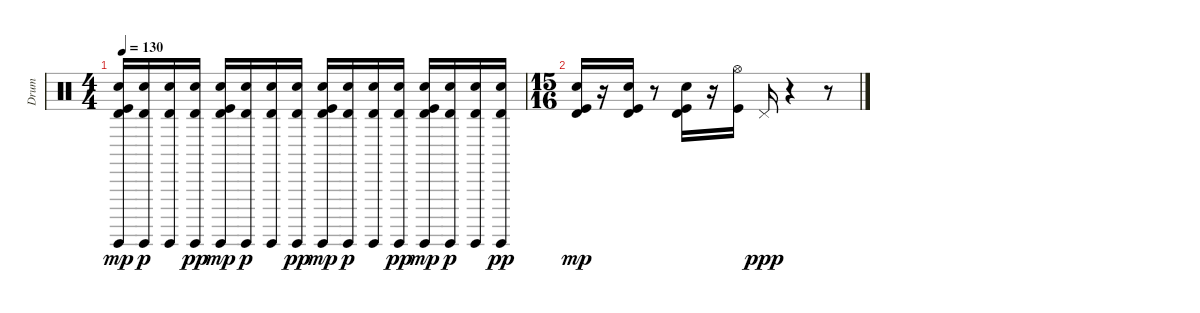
\track ("Drum" "Drum") {instrument percussion}
\staff {score}
\articulation defaults
\ts (4 4)
\tempo 130
\clef neutral
\ks c
("Guiro (hit)" "Electric Snare (hit)" "Timbale high (hit)" "Kick (hit)").16{dy mp} ("Guiro (hit)" "Electric Snare (hit)" "Timbale high (hit)").16{dy p} ("Guiro (hit)" "Electric Snare (hit)" "Timbale high (hit)").16 ("Guiro (hit)" "Electric Snare (hit)" "Timbale high (hit)").16{dy pp} ("Guiro (hit)" "Electric Snare (hit)" "Timbale high (hit)" "Kick (hit)").16{dy mp} ("Guiro (hit)" "Electric Snare (hit)" "Timbale high (hit)").16{dy p} ("Guiro (hit)" "Electric Snare (hit)" "Timbale high (hit)").16 ("Guiro (hit)" "Electric Snare (hit)" "Timbale high (hit)").16{dy pp} ("Guiro (hit)" "Electric Snare (hit)" "Timbale high (hit)" "Kick (hit)").16{dy mp} ("Guiro (hit)" "Electric Snare (hit)" "Timbale high (hit)").16{dy p} ("Guiro (hit)" "Electric Snare (hit)" "Timbale high (hit)").16 ("Guiro (hit)" "Electric Snare (hit)" "Timbale high (hit)").16{dy pp} ("Guiro (hit)" "Electric Snare (hit)" "Timbale high (hit)" "Kick (hit)").16{dy mp} ("Guiro (hit)" "Electric Snare (hit)" "Timbale high (hit)").16{dy p} ("Guiro (hit)" "Electric Snare (hit)" "Timbale high (hit)").16 ("Guiro (hit)" "Electric Snare (hit)" "Timbale high (hit)").16{dy pp} |
\ts (15 16)
("Timbale high (hit)" "Electric Snare (hit)" "Kick (hit)").16{dy mp} r.16 ("Timbale high (hit)" "Electric Snare (hit)" "Kick (hit)").16 r.8 ("Electric Snare (hit)" "Timbale high (hit)" "Kick (hit)").16 r.16 ("Hi-Hat (open)" "Kick (hit)").16 "Pedal Hi-Hat (hit)".16{dy ppp} r.4 r.8
